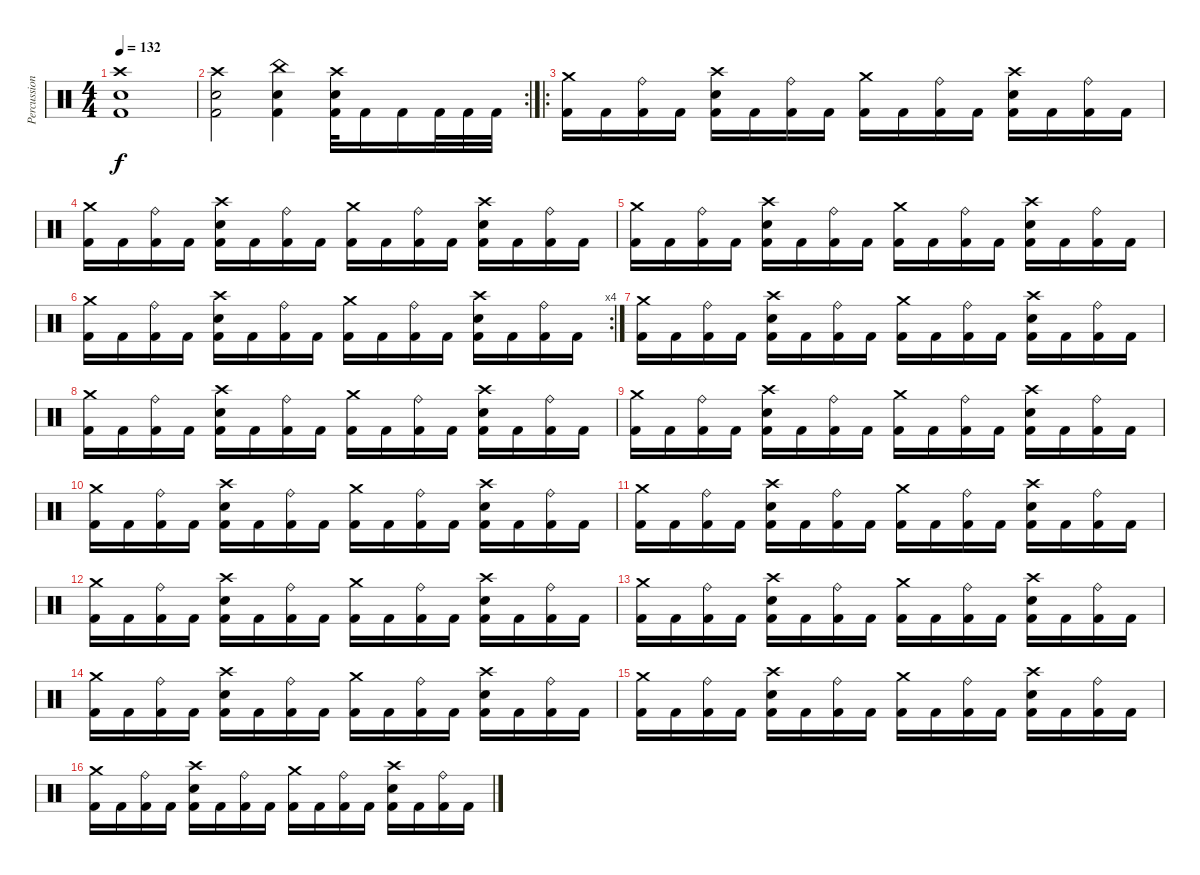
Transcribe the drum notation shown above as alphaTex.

\track ("Percussion" "Percussion") {instrument percussion}
\staff {score}
\articulation defaults
\ts (4 4)
\tempo 132
\clef neutral
\ks c
("Crash high (hit)" "Snare (hit) 2" "Kick (hit) 2").1{dy f} |
\rc 2
("Crash high (hit)" "Snare (hit) 2" "Kick (hit) 2").2 ("China (hit)" "Snare (hit) 2" "Kick (hit) 2").4 ("Crash high (hit)" "Snare (hit) 2" "Kick (hit) 2").32 "Kick (hit) 2".16 "Kick (hit) 2".16 "Kick (hit) 2".32 "Kick (hit) 2".32 "Kick (hit) 2".32 |
\ro
("Crash medium (hit)" "Kick (hit) 2").16 "Kick (hit) 2".16 ("Ride (bell)" "Kick (hit) 2").16 "Kick (hit) 2".16 ("Crash high (hit)" "Snare (hit) 2" "Kick (hit) 2").16 "Kick (hit) 2".16 ("Ride (bell)" "Kick (hit) 2").16 "Kick (hit) 2".16 ("Crash medium (hit)" "Kick (hit) 2").16 "Kick (hit) 2".16 ("Ride (bell)" "Kick (hit) 2").16 "Kick (hit) 2".16 ("Crash high (hit)" "Snare (hit) 2" "Kick (hit) 2").16 "Kick (hit) 2".16 ("Ride (bell)" "Kick (hit) 2").16 "Kick (hit) 2".16 |
("Crash medium (hit)" "Kick (hit) 2").16 "Kick (hit) 2".16 ("Ride (bell)" "Kick (hit) 2").16 "Kick (hit) 2".16 ("Crash high (hit)" "Snare (hit) 2" "Kick (hit) 2").16 "Kick (hit) 2".16 ("Ride (bell)" "Kick (hit) 2").16 "Kick (hit) 2".16 ("Crash medium (hit)" "Kick (hit) 2").16 "Kick (hit) 2".16 ("Ride (bell)" "Kick (hit) 2").16 "Kick (hit) 2".16 ("Crash high (hit)" "Snare (hit) 2" "Kick (hit) 2").16 "Kick (hit) 2".16 ("Ride (bell)" "Kick (hit) 2").16 "Kick (hit) 2".16 |
("Crash medium (hit)" "Kick (hit) 2").16 "Kick (hit) 2".16 ("Ride (bell)" "Kick (hit) 2").16 "Kick (hit) 2".16 ("Crash high (hit)" "Snare (hit) 2" "Kick (hit) 2").16 "Kick (hit) 2".16 ("Ride (bell)" "Kick (hit) 2").16 "Kick (hit) 2".16 ("Crash medium (hit)" "Kick (hit) 2").16 "Kick (hit) 2".16 ("Ride (bell)" "Kick (hit) 2").16 "Kick (hit) 2".16 ("Crash high (hit)" "Snare (hit) 2" "Kick (hit) 2").16 "Kick (hit) 2".16 ("Ride (bell)" "Kick (hit) 2").16 "Kick (hit) 2".16 |
\rc 4
("Crash medium (hit)" "Kick (hit) 2").16 "Kick (hit) 2".16 ("Ride (bell)" "Kick (hit) 2").16 "Kick (hit) 2".16 ("Crash high (hit)" "Snare (hit) 2" "Kick (hit) 2").16 "Kick (hit) 2".16 ("Ride (bell)" "Kick (hit) 2").16 "Kick (hit) 2".16 ("Crash medium (hit)" "Kick (hit) 2").16 "Kick (hit) 2".16 ("Ride (bell)" "Kick (hit) 2").16 "Kick (hit) 2".16 ("Crash high (hit)" "Snare (hit) 2" "Kick (hit) 2").16 "Kick (hit) 2".16 ("Ride (bell)" "Kick (hit) 2").16 "Kick (hit) 2".16 |
("Crash medium (hit)" "Kick (hit) 2").16 "Kick (hit) 2".16 ("Ride (bell)" "Kick (hit) 2").16 "Kick (hit) 2".16 ("Crash high (hit)" "Snare (hit) 2" "Kick (hit) 2").16 "Kick (hit) 2".16 ("Ride (bell)" "Kick (hit) 2").16 "Kick (hit) 2".16 ("Crash medium (hit)" "Kick (hit) 2").16 "Kick (hit) 2".16 ("Ride (bell)" "Kick (hit) 2").16 "Kick (hit) 2".16 ("Crash high (hit)" "Snare (hit) 2" "Kick (hit) 2").16 "Kick (hit) 2".16 ("Ride (bell)" "Kick (hit) 2").16 "Kick (hit) 2".16 |
("Crash medium (hit)" "Kick (hit) 2").16 "Kick (hit) 2".16 ("Ride (bell)" "Kick (hit) 2").16 "Kick (hit) 2".16 ("Crash high (hit)" "Snare (hit) 2" "Kick (hit) 2").16 "Kick (hit) 2".16 ("Ride (bell)" "Kick (hit) 2").16 "Kick (hit) 2".16 ("Crash medium (hit)" "Kick (hit) 2").16 "Kick (hit) 2".16 ("Ride (bell)" "Kick (hit) 2").16 "Kick (hit) 2".16 ("Crash high (hit)" "Snare (hit) 2" "Kick (hit) 2").16 "Kick (hit) 2".16 ("Ride (bell)" "Kick (hit) 2").16 "Kick (hit) 2".16 |
("Crash medium (hit)" "Kick (hit) 2").16 "Kick (hit) 2".16 ("Ride (bell)" "Kick (hit) 2").16 "Kick (hit) 2".16 ("Crash high (hit)" "Snare (hit) 2" "Kick (hit) 2").16 "Kick (hit) 2".16 ("Ride (bell)" "Kick (hit) 2").16 "Kick (hit) 2".16 ("Crash medium (hit)" "Kick (hit) 2").16 "Kick (hit) 2".16 ("Ride (bell)" "Kick (hit) 2").16 "Kick (hit) 2".16 ("Crash high (hit)" "Snare (hit) 2" "Kick (hit) 2").16 "Kick (hit) 2".16 ("Ride (bell)" "Kick (hit) 2").16 "Kick (hit) 2".16 |
("Crash medium (hit)" "Kick (hit) 2").16 "Kick (hit) 2".16 ("Ride (bell)" "Kick (hit) 2").16 "Kick (hit) 2".16 ("Crash high (hit)" "Snare (hit) 2" "Kick (hit) 2").16 "Kick (hit) 2".16 ("Ride (bell)" "Kick (hit) 2").16 "Kick (hit) 2".16 ("Crash medium (hit)" "Kick (hit) 2").16 "Kick (hit) 2".16 ("Ride (bell)" "Kick (hit) 2").16 "Kick (hit) 2".16 ("Crash high (hit)" "Snare (hit) 2" "Kick (hit) 2").16 "Kick (hit) 2".16 ("Ride (bell)" "Kick (hit) 2").16 "Kick (hit) 2".16 |
("Crash medium (hit)" "Kick (hit) 2").16 "Kick (hit) 2".16 ("Ride (bell)" "Kick (hit) 2").16 "Kick (hit) 2".16 ("Crash high (hit)" "Snare (hit) 2" "Kick (hit) 2").16 "Kick (hit) 2".16 ("Ride (bell)" "Kick (hit) 2").16 "Kick (hit) 2".16 ("Crash medium (hit)" "Kick (hit) 2").16 "Kick (hit) 2".16 ("Ride (bell)" "Kick (hit) 2").16 "Kick (hit) 2".16 ("Crash high (hit)" "Snare (hit) 2" "Kick (hit) 2").16 "Kick (hit) 2".16 ("Ride (bell)" "Kick (hit) 2").16 "Kick (hit) 2".16 |
("Crash medium (hit)" "Kick (hit) 2").16 "Kick (hit) 2".16 ("Ride (bell)" "Kick (hit) 2").16 "Kick (hit) 2".16 ("Crash high (hit)" "Snare (hit) 2" "Kick (hit) 2").16 "Kick (hit) 2".16 ("Ride (bell)" "Kick (hit) 2").16 "Kick (hit) 2".16 ("Crash medium (hit)" "Kick (hit) 2").16 "Kick (hit) 2".16 ("Ride (bell)" "Kick (hit) 2").16 "Kick (hit) 2".16 ("Crash high (hit)" "Snare (hit) 2" "Kick (hit) 2").16 "Kick (hit) 2".16 ("Ride (bell)" "Kick (hit) 2").16 "Kick (hit) 2".16 |
("Crash medium (hit)" "Kick (hit) 2").16 "Kick (hit) 2".16 ("Ride (bell)" "Kick (hit) 2").16 "Kick (hit) 2".16 ("Crash high (hit)" "Snare (hit) 2" "Kick (hit) 2").16 "Kick (hit) 2".16 ("Ride (bell)" "Kick (hit) 2").16 "Kick (hit) 2".16 ("Crash medium (hit)" "Kick (hit) 2").16 "Kick (hit) 2".16 ("Ride (bell)" "Kick (hit) 2").16 "Kick (hit) 2".16 ("Crash high (hit)" "Snare (hit) 2" "Kick (hit) 2").16 "Kick (hit) 2".16 ("Ride (bell)" "Kick (hit) 2").16 "Kick (hit) 2".16 |
("Crash medium (hit)" "Kick (hit) 2").16 "Kick (hit) 2".16 ("Ride (bell)" "Kick (hit) 2").16 "Kick (hit) 2".16 ("Crash high (hit)" "Snare (hit) 2" "Kick (hit) 2").16 "Kick (hit) 2".16 ("Ride (bell)" "Kick (hit) 2").16 "Kick (hit) 2".16 ("Crash medium (hit)" "Kick (hit) 2").16 "Kick (hit) 2".16 ("Ride (bell)" "Kick (hit) 2").16 "Kick (hit) 2".16 ("Crash high (hit)" "Snare (hit) 2" "Kick (hit) 2").16 "Kick (hit) 2".16 ("Ride (bell)" "Kick (hit) 2").16 "Kick (hit) 2".16 |
("Crash medium (hit)" "Kick (hit) 2").16 "Kick (hit) 2".16 ("Ride (bell)" "Kick (hit) 2").16 "Kick (hit) 2".16 ("Crash high (hit)" "Snare (hit) 2" "Kick (hit) 2").16 "Kick (hit) 2".16 ("Ride (bell)" "Kick (hit) 2").16 "Kick (hit) 2".16 ("Crash medium (hit)" "Kick (hit) 2").16 "Kick (hit) 2".16 ("Ride (bell)" "Kick (hit) 2").16 "Kick (hit) 2".16 ("Crash high (hit)" "Snare (hit) 2" "Kick (hit) 2").16 "Kick (hit) 2".16 ("Ride (bell)" "Kick (hit) 2").16 "Kick (hit) 2".16 |
("Crash medium (hit)" "Kick (hit) 2").16 "Kick (hit) 2".16 ("Ride (bell)" "Kick (hit) 2").16 "Kick (hit) 2".16 ("Crash high (hit)" "Snare (hit) 2" "Kick (hit) 2").16 "Kick (hit) 2".16 ("Ride (bell)" "Kick (hit) 2").16 "Kick (hit) 2".16 ("Crash medium (hit)" "Kick (hit) 2").16 "Kick (hit) 2".16 ("Ride (bell)" "Kick (hit) 2").16 "Kick (hit) 2".16 ("Crash high (hit)" "Snare (hit) 2" "Kick (hit) 2").16 "Kick (hit) 2".16 ("Ride (bell)" "Kick (hit) 2").16 "Kick (hit) 2".16
